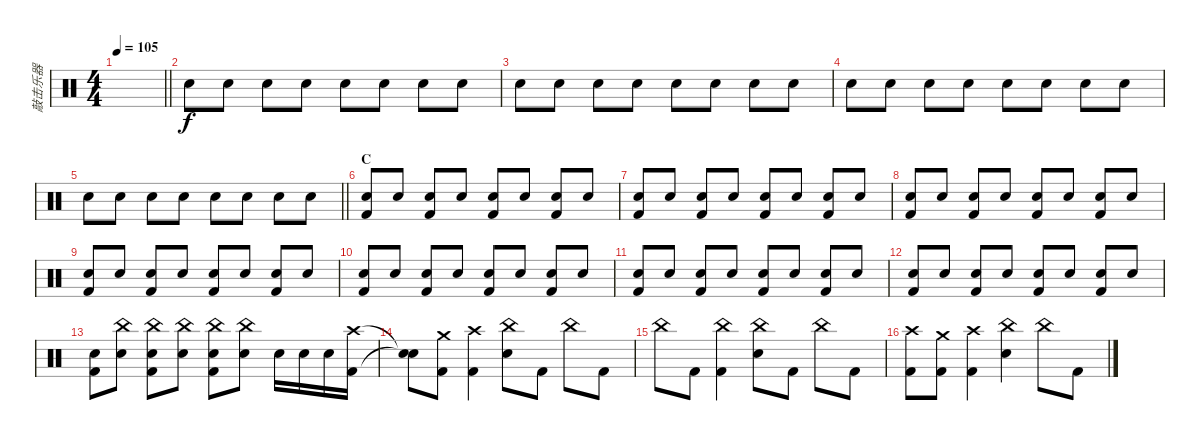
\track ("敲击乐器" "敲击乐器") {instrument percussion}
\staff {score}
\articulation defaults
\ts (4 4)
\tempo 105
\clef neutral
\barLineRight lightlight
\ks c
|
"Electric Snare (hit)".8 "Electric Snare (hit)".8 "Electric Snare (hit)".8 "Electric Snare (hit)".8 "Electric Snare (hit)".8 "Electric Snare (hit)".8 "Electric Snare (hit)".8 "Electric Snare (hit)".8 |
"Electric Snare (hit)".8 "Electric Snare (hit)".8 "Electric Snare (hit)".8 "Electric Snare (hit)".8 "Electric Snare (hit)".8 "Electric Snare (hit)".8 "Electric Snare (hit)".8 "Electric Snare (hit)".8 |
"Electric Snare (hit)".8 "Electric Snare (hit)".8 "Electric Snare (hit)".8 "Electric Snare (hit)".8 "Electric Snare (hit)".8 "Electric Snare (hit)".8 "Electric Snare (hit)".8 "Electric Snare (hit)".8 |
\barLineRight lightlight "Electric Snare (hit)".8 "Electric Snare (hit)".8 "Electric Snare (hit)".8 "Electric Snare (hit)".8 "Electric Snare (hit)".8 "Electric Snare (hit)".8 "Electric Snare (hit)".8 "Electric Snare (hit)".8
|
\section ("" "C")
("Electric Snare (hit)" "Kick (hit) 2").8 "Electric Snare (hit)".8 ("Electric Snare (hit)" "Kick (hit) 2").8 "Electric Snare (hit)".8 ("Electric Snare (hit)" "Kick (hit) 2").8 "Electric Snare (hit)".8 ("Electric Snare (hit)" "Kick (hit) 2").8 "Electric Snare (hit)".8 |
("Electric Snare (hit)" "Kick (hit) 2").8 "Electric Snare (hit)".8 ("Electric Snare (hit)" "Kick (hit) 2").8 "Electric Snare (hit)".8 ("Electric Snare (hit)" "Kick (hit) 2").8 "Electric Snare (hit)".8 ("Electric Snare (hit)" "Kick (hit) 2").8 "Electric Snare (hit)".8 |
("Electric Snare (hit)" "Kick (hit) 2").8 "Electric Snare (hit)".8 ("Electric Snare (hit)" "Kick (hit) 2").8 "Electric Snare (hit)".8 ("Electric Snare (hit)" "Kick (hit) 2").8 "Electric Snare (hit)".8 ("Electric Snare (hit)" "Kick (hit) 2").8 "Electric Snare (hit)".8 |
("Electric Snare (hit)" "Kick (hit) 2").8 "Electric Snare (hit)".8 ("Electric Snare (hit)" "Kick (hit) 2").8 "Electric Snare (hit)".8 ("Electric Snare (hit)" "Kick (hit) 2").8 "Electric Snare (hit)".8 ("Electric Snare (hit)" "Kick (hit) 2").8 "Electric Snare (hit)".8 |
("Electric Snare (hit)" "Kick (hit) 2").8 "Electric Snare (hit)".8 ("Electric Snare (hit)" "Kick (hit) 2").8 "Electric Snare (hit)".8 ("Electric Snare (hit)" "Kick (hit) 2").8 "Electric Snare (hit)".8 ("Electric Snare (hit)" "Kick (hit) 2").8 "Electric Snare (hit)".8 |
("Electric Snare (hit)" "Kick (hit) 2").8 "Electric Snare (hit)".8 ("Electric Snare (hit)" "Kick (hit) 2").8 "Electric Snare (hit)".8 ("Electric Snare (hit)" "Kick (hit) 2").8 "Electric Snare (hit)".8 ("Electric Snare (hit)" "Kick (hit) 2").8 "Electric Snare (hit)".8 |
("Electric Snare (hit)" "Kick (hit) 2").8 "Electric Snare (hit)".8 ("Electric Snare (hit)" "Kick (hit) 2").8 "Electric Snare (hit)".8 ("Electric Snare (hit)" "Kick (hit) 2").8 "Electric Snare (hit)".8 ("Electric Snare (hit)" "Kick (hit) 2").8 "Electric Snare (hit)".8 |
("Electric Snare (hit)" "Kick (hit) 2").8 ("China (hit)" "Electric Snare (hit)").8 ("China (hit)" "Electric Snare (hit)" "Kick (hit) 2").8 ("China (hit)" "Electric Snare (hit)").8 ("China (hit)" "Electric Snare (hit)" "Kick (hit) 2").8 ("China (hit)" "Electric Snare (hit)").8 "Electric Snare (hit)".16 "Electric Snare (hit)".16 "Electric Snare (hit)".16 ("Crash high (hit)" "Kick (hit) 2").16 |
("Snare (hit)"{t} "Snare (hit)"{t}).8 ("Crash medium (hit)" "Kick (hit) 2").8 ("Crash high (hit)" "Kick (hit) 2").4 ("China (hit)" "Electric Snare (hit)").8 "Kick (hit) 2".8 "China (hit)".8 "Kick (hit) 2".8 |
"China (hit)".8 "Kick (hit) 2".8 ("China (hit)" "Kick (hit) 2").4 ("China (hit)" "Electric Snare (hit)").8 "Kick (hit) 2".8 "China (hit)".8 "Kick (hit) 2".8 |
("Crash high (hit)" "Kick (hit) 2").8 ("Crash medium (hit)" "Kick (hit) 2").8 ("Crash high (hit)" "Kick (hit) 2").4 ("China (hit)" "Electric Snare (hit)").4 "China (hit)".8 "Kick (hit) 2".8
